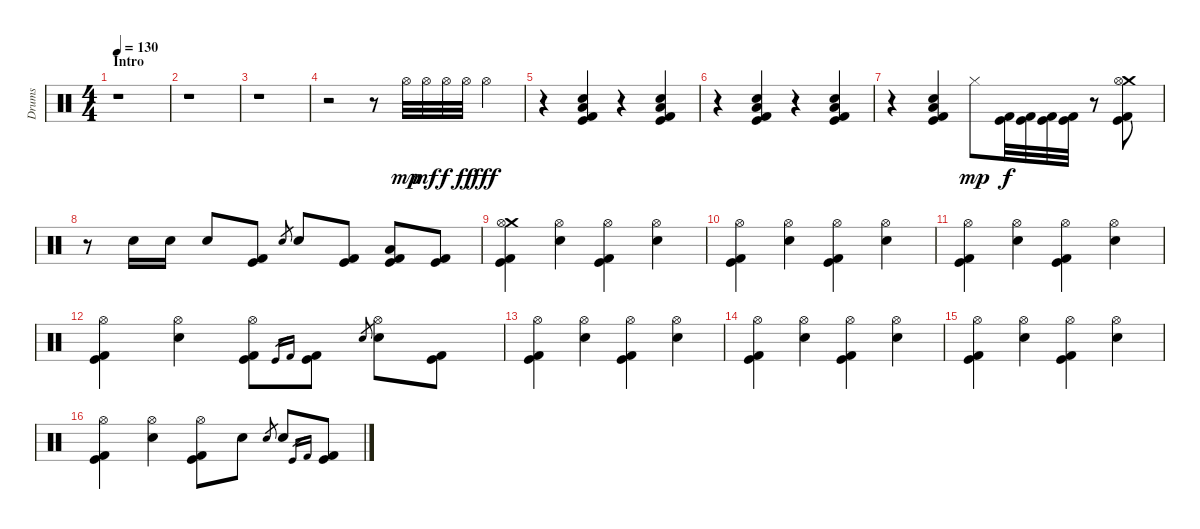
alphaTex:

\track ("Drums" "Drums") {instrument percussion}
\staff {score}
\articulation defaults
\ts (4 4)
\section ("" "Intro")
\tempo 130
\clef neutral
\ks c
r.1{dy mp} |
r.1 |
r.1 |
r.2 r.8 "Hi-Hat (open)".32 "Hi-Hat (open)".32{dy mf} "Hi-Hat (open)".32{dy f} "Hi-Hat (open)".32{dy ff} "Hi-Hat (open)".4{dy fff} |
r.4 ("Electric Snare (hit)" "Low Floor Tom (hit)" "Kick (hit)" "Kick (hit) 2").4 r.4 ("Electric Snare (hit)" "Low Floor Tom (hit)" "Kick (hit)" "Kick (hit) 2").4 |
r.4 ("Electric Snare (hit)" "Low Floor Tom (hit)" "Kick (hit)" "Kick (hit) 2").4 r.4 ("Electric Snare (hit)" "Low Floor Tom (hit)" "Kick (hit)" "Kick (hit) 2").4 |
r.4 ("Electric Snare (hit)" "Low Floor Tom (hit)" "Kick (hit)" "Kick (hit) 2").4 "Hi-Hat (closed)".8{dy mp} ("Kick (hit)" "Kick (hit) 2").32{dy f} ("Kick (hit)" "Kick (hit) 2").32 ("Kick (hit)" "Kick (hit) 2").32 ("Kick (hit)" "Kick (hit) 2").32 r.8 ("Crash medium (hit)" "Hi-Hat (open)" "Kick (hit)" "Kick (hit) 2").8 |
r.8 "Electric Snare (hit)".16 "Electric Snare (hit)".16 "Electric Snare (hit)".8 ("Kick (hit)" "Kick (hit) 2").8 "Electric Snare (hit)".8{gr} "Electric Snare (hit)".8 ("Kick (hit)" "Kick (hit) 2").8 ("Low Floor Tom (hit)" "Kick (hit)" "Kick (hit) 2").8 ("Kick (hit)" "Kick (hit) 2").8 |
("Crash medium (hit)" "Hi-Hat (open)" "Kick (hit)" "Kick (hit) 2").4 ("Hi-Hat (open)" "Electric Snare (hit)").4 ("Hi-Hat (open)" "Kick (hit)" "Kick (hit) 2").4 ("Hi-Hat (open)" "Electric Snare (hit)").4 |
("Hi-Hat (open)" "Kick (hit)" "Kick (hit) 2").4 ("Hi-Hat (open)" "Electric Snare (hit)").4 ("Hi-Hat (open)" "Kick (hit)" "Kick (hit) 2").4 ("Hi-Hat (open)" "Electric Snare (hit)").4 |
("Hi-Hat (open)" "Kick (hit)" "Kick (hit) 2").4 ("Hi-Hat (open)" "Electric Snare (hit)").4 ("Hi-Hat (open)" "Kick (hit)" "Kick (hit) 2").4 ("Hi-Hat (open)" "Electric Snare (hit)").4 |
("Hi-Hat (open)" "Kick (hit)" "Kick (hit) 2").4 ("Hi-Hat (open)" "Electric Snare (hit)").4 ("Hi-Hat (open)" "Kick (hit)" "Kick (hit) 2").8 "Kick (hit)".16{gr} "Kick (hit) 2".16{gr} ("Kick (hit)" "Kick (hit) 2").8 "Electric Snare (hit)".8{gr} ("Hi-Hat (open)" "Electric Snare (hit)").8 ("Kick (hit)" "Kick (hit) 2").8 |
("Hi-Hat (open)" "Kick (hit)" "Kick (hit) 2").4 ("Hi-Hat (open)" "Electric Snare (hit)").4 ("Hi-Hat (open)" "Kick (hit)" "Kick (hit) 2").4 ("Hi-Hat (open)" "Electric Snare (hit)").4 |
("Hi-Hat (open)" "Kick (hit)" "Kick (hit) 2").4 ("Hi-Hat (open)" "Electric Snare (hit)").4 ("Hi-Hat (open)" "Kick (hit)" "Kick (hit) 2").4 ("Hi-Hat (open)" "Electric Snare (hit)").4 |
("Hi-Hat (open)" "Kick (hit)" "Kick (hit) 2").4 ("Hi-Hat (open)" "Electric Snare (hit)").4 ("Hi-Hat (open)" "Kick (hit)" "Kick (hit) 2").4 ("Hi-Hat (open)" "Electric Snare (hit)").4 |
("Hi-Hat (open)" "Kick (hit)" "Kick (hit) 2").4 ("Hi-Hat (open)" "Electric Snare (hit)").4 ("Hi-Hat (open)" "Kick (hit)" "Kick (hit) 2").8 "Electric Snare (hit)".8 "Electric Snare (hit)".8{gr} "Electric Snare (hit)".8 "Kick (hit)".16{gr} "Kick (hit) 2".16{gr} ("Kick (hit)" "Kick (hit) 2").8
